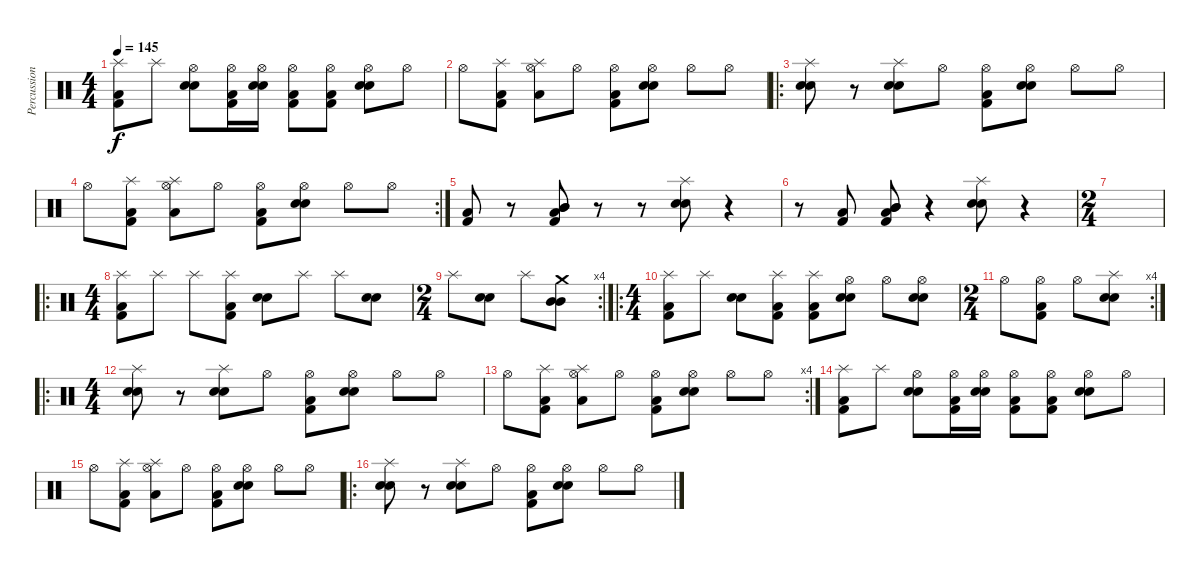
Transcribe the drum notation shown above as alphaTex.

\track ("Percussions" "Percussion") {instrument percussion}
\staff {score}
\articulation defaults
\ts (4 4)
\tempo 145
\clef neutral
\ks c
("Splash (hit)" "Low Floor Tom (hit)" "Kick (hit) 2").8{dy f} "Splash (hit)".8 ("Hi-Hat (open)" "Snare (hit) 2" "Electric Snare (hit)").8 ("Hi-Hat (open)" "Low Floor Tom (hit)" "Kick (hit) 2").16 ("Hi-Hat (open)" "Snare (hit) 2" "Electric Snare (hit)").16 ("Hi-Hat (open)" "Low Floor Tom (hit)" "Kick (hit) 2").8 ("Hi-Hat (open)" "Low Floor Tom (hit)" "Kick (hit) 2").8 ("Hi-Hat (open)" "Snare (hit) 2" "Electric Snare (hit)").8 "Hi-Hat (open)".8 |
"Hi-Hat (open)".8 ("Splash (hit)" "Low Floor Tom (hit)" "Kick (hit) 2").8 ("Splash (hit)" "Low Floor Tom (hit)" "Hi-Hat (open)").8 "Hi-Hat (open)".8 ("Hi-Hat (open)" "Low Floor Tom (hit)" "Kick (hit) 2").8 ("Hi-Hat (open)" "Snare (hit) 2" "Electric Snare (hit)").8 "Hi-Hat (open)".8 "Hi-Hat (open)".8 |
\ro
("Splash (hit)" "Snare (hit) 2" "Electric Snare (hit)").8 r.8 ("Splash (hit)" "Snare (hit) 2" "Electric Snare (hit)").8 "Hi-Hat (open)".8 ("Hi-Hat (open)" "Low Floor Tom (hit)" "Kick (hit) 2").8 ("Hi-Hat (open)" "Snare (hit) 2" "Electric Snare (hit)").8 "Hi-Hat (open)".8 "Hi-Hat (open)".8 |
\rc 2 "Hi-Hat (open)".8
("Splash (hit)" "Low Floor Tom (hit)" "Kick (hit) 2").8 ("Splash (hit)" "Low Floor Tom (hit)" "Hi-Hat (open)").8 "Hi-Hat (open)".8 ("Hi-Hat (open)" "Low Floor Tom (hit)" "Kick (hit) 2").8 ("Hi-Hat (open)" "Snare (hit) 2" "Electric Snare (hit)").8 "Hi-Hat (open)".8 "Hi-Hat (open)".8 |
("Kick (hit) 2" "Low Floor Tom (hit)").8 r.8 ("Mid Tom (hit)" "Kick (hit) 2" "Low Floor Tom (hit)" "Mid Tom (hit)").8 r.8 r.8 ("Splash (hit)" "Snare (hit) 2" "Electric Snare (hit)").8 r.4 |
r.8 ("Kick (hit) 2" "Low Floor Tom (hit)").8 ("Mid Tom (hit)" "Kick (hit) 2" "Low Floor Tom (hit)" "Mid Tom (hit)").8 r.4 ("Splash (hit)" "Snare (hit) 2" "Electric Snare (hit)").8 r.4 |
\ts (2 4)
|
\ro
\ts (4 4)
("Splash (hit)" "Low Floor Tom (hit)" "Kick (hit) 2").8 "Splash (hit)".8 "Splash (hit)".8 ("Splash (hit)" "Low Floor Tom (hit)" "Kick (hit) 2").8 ("Snare (hit) 2" "Electric Snare (hit)").8 "Splash (hit)".8 "Splash (hit)".8 ("Snare (hit) 2" "Electric Snare (hit)").8 |
\rc 4
\ts (2 4)
"Splash (hit)".8 ("Snare (hit) 2" "Electric Snare (hit)").8 "Splash (hit)".8 ("Crash medium (hit)" "Mid Tom (hit)" "Mid Tom (hit)").8 |
\ro
\ts (4 4)
("Splash (hit)" "Low Floor Tom (hit)" "Kick (hit) 2").8 "Splash (hit)".8 ("Snare (hit) 2" "Electric Snare (hit)").8 ("Splash (hit)" "Low Floor Tom (hit)" "Kick (hit) 2").8 ("Splash (hit)" "Low Floor Tom (hit)" "Kick (hit) 2").8 ("Hi-Hat (open)" "Snare (hit) 2" "Electric Snare (hit)").8 "Hi-Hat (open)".8 ("Hi-Hat (open)" "Snare (hit) 2" "Electric Snare (hit)").8 |
\rc 4
\ts (2 4)
"Hi-Hat (open)".8 ("Hi-Hat (open)" "Low Floor Tom (hit)" "Kick (hit) 2").8 "Hi-Hat (open)".8 ("Splash (hit)" "Snare (hit) 2" "Electric Snare (hit)").8 |
\ro
\ts (4 4)
("Splash (hit)" "Snare (hit) 2" "Electric Snare (hit)").8 r.8 ("Splash (hit)" "Snare (hit) 2" "Electric Snare (hit)").8 "Hi-Hat (open)".8 ("Hi-Hat (open)" "Low Floor Tom (hit)" "Kick (hit) 2").8 ("Hi-Hat (open)" "Snare (hit) 2" "Electric Snare (hit)").8 "Hi-Hat (open)".8 "Hi-Hat (open)".8 |
\rc 4 "Hi-Hat (open)".8
("Splash (hit)" "Low Floor Tom (hit)" "Kick (hit) 2").8 ("Splash (hit)" "Low Floor Tom (hit)" "Hi-Hat (open)").8 "Hi-Hat (open)".8 ("Hi-Hat (open)" "Low Floor Tom (hit)" "Kick (hit) 2").8 ("Hi-Hat (open)" "Snare (hit) 2" "Electric Snare (hit)").8 "Hi-Hat (open)".8 "Hi-Hat (open)".8 |
("Splash (hit)" "Low Floor Tom (hit)" "Kick (hit) 2").8 "Splash (hit)".8 ("Hi-Hat (open)" "Snare (hit) 2" "Electric Snare (hit)").8 ("Hi-Hat (open)" "Low Floor Tom (hit)" "Kick (hit) 2").16 ("Hi-Hat (open)" "Snare (hit) 2" "Electric Snare (hit)").16 ("Hi-Hat (open)" "Low Floor Tom (hit)" "Kick (hit) 2").8 ("Hi-Hat (open)" "Low Floor Tom (hit)" "Kick (hit) 2").8 ("Hi-Hat (open)" "Snare (hit) 2" "Electric Snare (hit)").8 "Hi-Hat (open)".8 |
"Hi-Hat (open)".8 ("Splash (hit)" "Low Floor Tom (hit)" "Kick (hit) 2").8 ("Splash (hit)" "Low Floor Tom (hit)" "Hi-Hat (open)").8 "Hi-Hat (open)".8 ("Hi-Hat (open)" "Low Floor Tom (hit)" "Kick (hit) 2").8 ("Hi-Hat (open)" "Snare (hit) 2" "Electric Snare (hit)").8 "Hi-Hat (open)".8 "Hi-Hat (open)".8 |
\ro
("Splash (hit)" "Snare (hit) 2" "Electric Snare (hit)").8 r.8 ("Splash (hit)" "Snare (hit) 2" "Electric Snare (hit)").8 "Hi-Hat (open)".8 ("Hi-Hat (open)" "Low Floor Tom (hit)" "Kick (hit) 2").8 ("Hi-Hat (open)" "Snare (hit) 2" "Electric Snare (hit)").8 "Hi-Hat (open)".8 "Hi-Hat (open)".8
